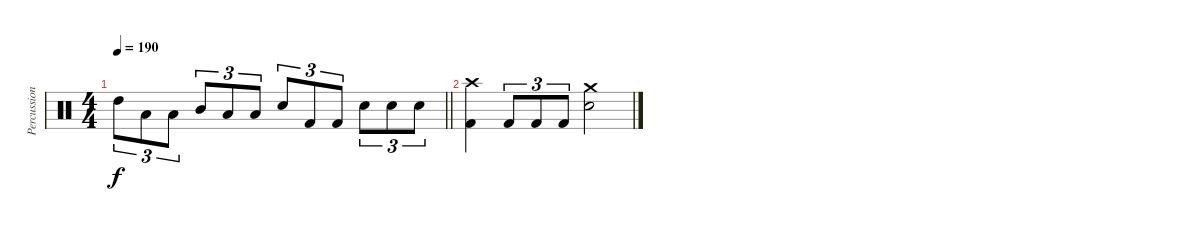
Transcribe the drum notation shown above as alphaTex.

\track ("Percussion" "Percussion") {instrument percussion}
\staff {score}
\articulation defaults
\ts (4 4)
\tempo 190
\clef neutral
\barLineRight lightlight
\ks c "High Tom (hit)".8{tu (3 2) dy f} "Low Tom (hit)".8{tu (3 2)} "Low Tom (hit)".8{tu (3 2)} "Mid Tom (hit)".8{tu (3 2)} "Low Tom (hit)".8{tu (3 2)} "Low Tom (hit)".8{tu (3 2)} "Snare (hit) 2".8{tu (3 2)} "Kick (hit) 2".8{tu (3 2)} "Kick (hit) 2".8{tu (3 2)} "Snare (hit) 2".8{tu (3 2)} "Snare (hit) 2".8{tu (3 2)} "Snare (hit) 2".8{tu (3 2)}
|
("Crash high (hit)" "Kick (hit) 2").4 "Kick (hit) 2".8{tu (3 2)} "Kick (hit) 2".8{tu (3 2)} "Kick (hit) 2".8{tu (3 2)} ("Crash medium (hit)" "Snare (hit) 2").2
